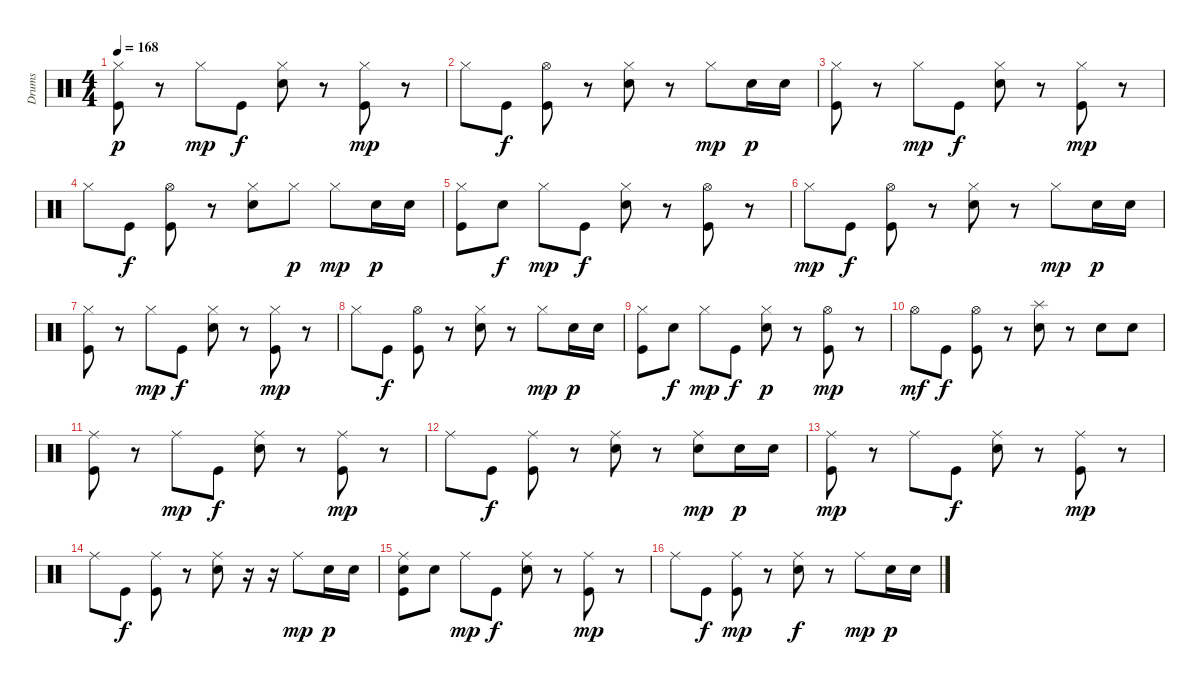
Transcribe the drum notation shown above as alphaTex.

\track ("Drums" "Drums") {instrument percussion}
\staff {score}
\articulation defaults
\ts (4 4)
\tempo 168
\clef neutral
\ks c
("Hi-Hat (closed)" "Kick (hit)").8{dy p} r.8 "Hi-Hat (closed)".8{dy mp} "Kick (hit)".8{dy f} ("Hi-Hat (closed)" "Electric Snare (hit)").8 r.8 ("Hi-Hat (closed)" "Kick (hit)").8{dy mp} r.8 |
"Hi-Hat (closed)".8 "Kick (hit)".8{dy f} ("Hi-Hat (open)" "Kick (hit)").8 r.8 ("Hi-Hat (closed)" "Electric Snare (hit)").8 r.8 "Hi-Hat (closed)".8{dy mp} "Electric Snare (hit)".16{dy p} "Electric Snare (hit)".16 |
("Hi-Hat (closed)" "Kick (hit)").8 r.8 "Hi-Hat (closed)".8{dy mp} "Kick (hit)".8{dy f} ("Hi-Hat (closed)" "Electric Snare (hit)").8 r.8 ("Hi-Hat (closed)" "Kick (hit)").8{dy mp} r.8 |
"Hi-Hat (closed)".8 "Kick (hit)".8{dy f} ("Hi-Hat (open)" "Kick (hit)").8 r.8 ("Hi-Hat (closed)" "Electric Snare (hit)").8 "Hi-Hat (closed)".8{dy p} "Hi-Hat (closed)".8{dy mp} "Electric Snare (hit)".16{dy p} "Electric Snare (hit)".16 |
("Hi-Hat (closed)" "Kick (hit)").8 "Electric Snare (hit)".8{dy f} "Hi-Hat (closed)".8{dy mp} "Kick (hit)".8{dy f} ("Hi-Hat (closed)" "Electric Snare (hit)").8 r.8 ("Hi-Hat (open)" "Kick (hit)").8 r.8 |
"Hi-Hat (closed)".8{dy mp} "Kick (hit)".8{dy f} ("Hi-Hat (open)" "Kick (hit)").8 r.8 ("Hi-Hat (closed)" "Electric Snare (hit)").8 r.8 "Hi-Hat (closed)".8{dy mp} "Electric Snare (hit)".16{dy p} "Electric Snare (hit)".16 |
("Hi-Hat (closed)" "Kick (hit)").8 r.8 "Hi-Hat (closed)".8{dy mp} "Kick (hit)".8{dy f} ("Hi-Hat (closed)" "Electric Snare (hit)").8 r.8 ("Hi-Hat (closed)" "Kick (hit)").8{dy mp} r.8 |
"Hi-Hat (closed)".8 "Kick (hit)".8{dy f} ("Hi-Hat (open)" "Kick (hit)").8 r.8 ("Hi-Hat (closed)" "Electric Snare (hit)").8 r.8 "Hi-Hat (closed)".8{dy mp} "Electric Snare (hit)".16{dy p} "Electric Snare (hit)".16 |
("Hi-Hat (closed)" "Kick (hit)").8 "Electric Snare (hit)".8{dy f} "Hi-Hat (closed)".8{dy mp} "Kick (hit)".8{dy f} ("Hi-Hat (closed)" "Electric Snare (hit)").8{dy p} r.8 ("Hi-Hat (open)" "Kick (hit)").8{dy mp} r.8 |
"Hi-Hat (open)".8{dy mf} "Kick (hit)".8{dy f} ("Hi-Hat (open)" "Kick (hit)").8 r.8 ("Splash (hit)" "Electric Snare (hit)").8 r.8 "Electric Snare (hit)".8 "Electric Snare (hit)".8 |
("Ride (middle)" "Kick (hit)").8 r.8 "Ride (middle)".8{dy mp} "Kick (hit)".8{dy f} ("Ride (middle)" "Electric Snare (hit)").8 r.8 ("Ride (middle)" "Kick (hit)").8{dy mp} r.8 |
"Ride (middle)".8 "Kick (hit)".8{dy f} ("Ride (middle)" "Kick (hit)").8 r.8 ("Ride (middle)" "Electric Snare (hit)").8 r.8 ("Ride (middle)" "Electric Snare (hit)").8{dy mp} "Electric Snare (hit)".16{dy p} "Electric Snare (hit)".16 |
("Ride (middle)" "Kick (hit)").8{dy mp} r.8 "Ride (middle)".8 "Kick (hit)".8{dy f} ("Ride (middle)" "Electric Snare (hit)").8 r.8 ("Ride (middle)" "Kick (hit)").8{dy mp} r.8 |
"Ride (middle)".8 "Kick (hit)".8{dy f} ("Ride (middle)" "Kick (hit)").8 r.8 ("Ride (middle)" "Electric Snare (hit)").8 r.16 r.16 "Ride (middle)".8{dy mp} "Electric Snare (hit)".16{dy p} "Electric Snare (hit)".16 |
("Electric Snare (hit)" "Ride (middle)" "Kick (hit)").8 "Electric Snare (hit)".8 "Ride (middle)".8{dy mp} "Kick (hit)".8{dy f} ("Ride (middle)" "Electric Snare (hit)").8 r.8 ("Ride (middle)" "Kick (hit)").8{dy mp} r.8 |
"Ride (middle)".8 "Kick (hit)".8{dy f} ("Ride (middle)" "Kick (hit)").8{dy mp} r.8 ("Ride (middle)" "Electric Snare (hit)").8{dy f} r.8 "Ride (middle)".8{dy mp} "Electric Snare (hit)".16{dy p} "Electric Snare (hit)".16
